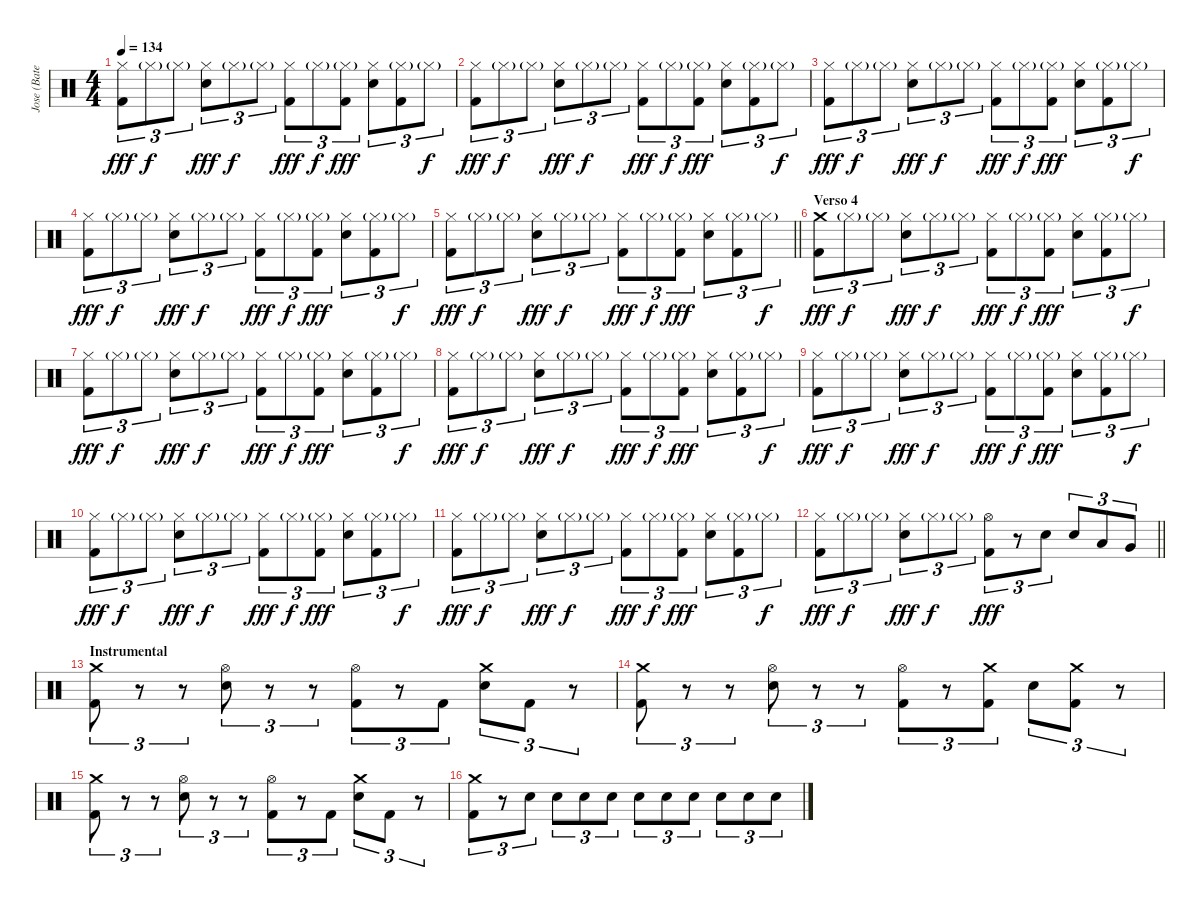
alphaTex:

\track ("Jose (Bateria)" "Jose (Bate") {instrument percussion}
\staff {score}
\articulation defaults
\ts (4 4)
\tempo 134
\clef neutral
\ks c
("Hi-Hat (closed)" "Kick (hit) 2").8{tu (3 2) dy fff} "Hi-Hat (closed)"{g}.8{tu (3 2) dy f} "Hi-Hat (closed)"{g}.8{tu (3 2)} ("Hi-Hat (closed)" "Snare (hit) 2").8{tu (3 2) dy fff} "Hi-Hat (closed)"{g}.8{tu (3 2) dy f} "Hi-Hat (closed)"{g}.8{tu (3 2)} ("Hi-Hat (closed)" "Kick (hit) 2").8{tu (3 2) dy fff} "Hi-Hat (closed)"{g}.8{tu (3 2) dy f} ("Hi-Hat (closed)"{g} "Kick (hit) 2").8{tu (3 2) dy fff} ("Hi-Hat (closed)" "Snare (hit) 2").8{tu (3 2)} ("Hi-Hat (closed)"{g} "Kick (hit) 2").8{tu (3 2)} "Hi-Hat (closed)"{g}.8{tu (3 2) dy f} |
("Hi-Hat (closed)" "Kick (hit) 2").8{tu (3 2) dy fff} "Hi-Hat (closed)"{g}.8{tu (3 2) dy f} "Hi-Hat (closed)"{g}.8{tu (3 2)} ("Hi-Hat (closed)" "Snare (hit) 2").8{tu (3 2) dy fff} "Hi-Hat (closed)"{g}.8{tu (3 2) dy f} "Hi-Hat (closed)"{g}.8{tu (3 2)} ("Hi-Hat (closed)" "Kick (hit) 2").8{tu (3 2) dy fff} "Hi-Hat (closed)"{g}.8{tu (3 2) dy f} ("Hi-Hat (closed)"{g} "Kick (hit) 2").8{tu (3 2) dy fff} ("Hi-Hat (closed)" "Snare (hit) 2").8{tu (3 2)} ("Hi-Hat (closed)"{g} "Kick (hit) 2").8{tu (3 2)} "Hi-Hat (closed)"{g}.8{tu (3 2) dy f} |
("Hi-Hat (closed)" "Kick (hit) 2").8{tu (3 2) dy fff} "Hi-Hat (closed)"{g}.8{tu (3 2) dy f} "Hi-Hat (closed)"{g}.8{tu (3 2)} ("Hi-Hat (closed)" "Snare (hit) 2").8{tu (3 2) dy fff} "Hi-Hat (closed)"{g}.8{tu (3 2) dy f} "Hi-Hat (closed)"{g}.8{tu (3 2)} ("Hi-Hat (closed)" "Kick (hit) 2").8{tu (3 2) dy fff} "Hi-Hat (closed)"{g}.8{tu (3 2) dy f} ("Hi-Hat (closed)"{g} "Kick (hit) 2").8{tu (3 2) dy fff} ("Hi-Hat (closed)" "Snare (hit) 2").8{tu (3 2)} ("Hi-Hat (closed)"{g} "Kick (hit) 2").8{tu (3 2)} "Hi-Hat (closed)"{g}.8{tu (3 2) dy f} |
("Hi-Hat (closed)" "Kick (hit) 2").8{tu (3 2) dy fff} "Hi-Hat (closed)"{g}.8{tu (3 2) dy f} "Hi-Hat (closed)"{g}.8{tu (3 2)} ("Hi-Hat (closed)" "Snare (hit) 2").8{tu (3 2) dy fff} "Hi-Hat (closed)"{g}.8{tu (3 2) dy f} "Hi-Hat (closed)"{g}.8{tu (3 2)} ("Hi-Hat (closed)" "Kick (hit) 2").8{tu (3 2) dy fff} "Hi-Hat (closed)"{g}.8{tu (3 2) dy f} ("Hi-Hat (closed)"{g} "Kick (hit) 2").8{tu (3 2) dy fff} ("Hi-Hat (closed)" "Snare (hit) 2").8{tu (3 2)} ("Hi-Hat (closed)"{g} "Kick (hit) 2").8{tu (3 2)} "Hi-Hat (closed)"{g}.8{tu (3 2) dy f} |
\barLineRight lightlight
("Hi-Hat (closed)" "Kick (hit) 2").8{tu (3 2) dy fff} "Hi-Hat (closed)"{g}.8{tu (3 2) dy f} "Hi-Hat (closed)"{g}.8{tu (3 2)} ("Hi-Hat (closed)" "Snare (hit) 2").8{tu (3 2) dy fff} "Hi-Hat (closed)"{g}.8{tu (3 2) dy f} "Hi-Hat (closed)"{g}.8{tu (3 2)} ("Hi-Hat (closed)" "Kick (hit) 2").8{tu (3 2) dy fff} "Hi-Hat (closed)"{g}.8{tu (3 2) dy f} ("Hi-Hat (closed)"{g} "Kick (hit) 2").8{tu (3 2) dy fff} ("Hi-Hat (closed)" "Snare (hit) 2").8{tu (3 2)} ("Hi-Hat (closed)"{g} "Kick (hit) 2").8{tu (3 2)} "Hi-Hat (closed)"{g}.8{tu (3 2) dy f} |
\section ("" "Verso 4")
("Crash medium (hit)" "Kick (hit) 2").8{tu (3 2) dy fff} "Hi-Hat (closed)"{g}.8{tu (3 2) dy f} "Hi-Hat (closed)"{g}.8{tu (3 2)} ("Hi-Hat (closed)" "Snare (hit) 2").8{tu (3 2) dy fff} "Hi-Hat (closed)"{g}.8{tu (3 2) dy f} "Hi-Hat (closed)"{g}.8{tu (3 2)} ("Hi-Hat (closed)" "Kick (hit) 2").8{tu (3 2) dy fff} "Hi-Hat (closed)"{g}.8{tu (3 2) dy f} ("Hi-Hat (closed)"{g} "Kick (hit) 2").8{tu (3 2) dy fff} ("Hi-Hat (closed)" "Snare (hit) 2").8{tu (3 2)} ("Hi-Hat (closed)"{g} "Kick (hit) 2").8{tu (3 2)} "Hi-Hat (closed)"{g}.8{tu (3 2) dy f} |
("Hi-Hat (closed)" "Kick (hit) 2").8{tu (3 2) dy fff} "Hi-Hat (closed)"{g}.8{tu (3 2) dy f} "Hi-Hat (closed)"{g}.8{tu (3 2)} ("Hi-Hat (closed)" "Snare (hit) 2").8{tu (3 2) dy fff} "Hi-Hat (closed)"{g}.8{tu (3 2) dy f} "Hi-Hat (closed)"{g}.8{tu (3 2)} ("Hi-Hat (closed)" "Kick (hit) 2").8{tu (3 2) dy fff} "Hi-Hat (closed)"{g}.8{tu (3 2) dy f} ("Hi-Hat (closed)"{g} "Kick (hit) 2").8{tu (3 2) dy fff} ("Hi-Hat (closed)" "Snare (hit) 2").8{tu (3 2)} ("Hi-Hat (closed)"{g} "Kick (hit) 2").8{tu (3 2)} "Hi-Hat (closed)"{g}.8{tu (3 2) dy f} |
("Hi-Hat (closed)" "Kick (hit) 2").8{tu (3 2) dy fff} "Hi-Hat (closed)"{g}.8{tu (3 2) dy f} "Hi-Hat (closed)"{g}.8{tu (3 2)} ("Hi-Hat (closed)" "Snare (hit) 2").8{tu (3 2) dy fff} "Hi-Hat (closed)"{g}.8{tu (3 2) dy f} "Hi-Hat (closed)"{g}.8{tu (3 2)} ("Hi-Hat (closed)" "Kick (hit) 2").8{tu (3 2) dy fff} "Hi-Hat (closed)"{g}.8{tu (3 2) dy f} ("Hi-Hat (closed)"{g} "Kick (hit) 2").8{tu (3 2) dy fff} ("Hi-Hat (closed)" "Snare (hit) 2").8{tu (3 2)} ("Hi-Hat (closed)"{g} "Kick (hit) 2").8{tu (3 2)} "Hi-Hat (closed)"{g}.8{tu (3 2) dy f} |
("Hi-Hat (closed)" "Kick (hit) 2").8{tu (3 2) dy fff} "Hi-Hat (closed)"{g}.8{tu (3 2) dy f} "Hi-Hat (closed)"{g}.8{tu (3 2)} ("Hi-Hat (closed)" "Snare (hit) 2").8{tu (3 2) dy fff} "Hi-Hat (closed)"{g}.8{tu (3 2) dy f} "Hi-Hat (closed)"{g}.8{tu (3 2)} ("Hi-Hat (closed)" "Kick (hit) 2").8{tu (3 2) dy fff} "Hi-Hat (closed)"{g}.8{tu (3 2) dy f} ("Hi-Hat (closed)"{g} "Kick (hit) 2").8{tu (3 2) dy fff} ("Hi-Hat (closed)" "Snare (hit) 2").8{tu (3 2)} ("Hi-Hat (closed)"{g} "Kick (hit) 2").8{tu (3 2)} "Hi-Hat (closed)"{g}.8{tu (3 2) dy f} |
("Hi-Hat (closed)" "Kick (hit) 2").8{tu (3 2) dy fff} "Hi-Hat (closed)"{g}.8{tu (3 2) dy f} "Hi-Hat (closed)"{g}.8{tu (3 2)} ("Hi-Hat (closed)" "Snare (hit) 2").8{tu (3 2) dy fff} "Hi-Hat (closed)"{g}.8{tu (3 2) dy f} "Hi-Hat (closed)"{g}.8{tu (3 2)} ("Hi-Hat (closed)" "Kick (hit) 2").8{tu (3 2) dy fff} "Hi-Hat (closed)"{g}.8{tu (3 2) dy f} ("Hi-Hat (closed)"{g} "Kick (hit) 2").8{tu (3 2) dy fff} ("Hi-Hat (closed)" "Snare (hit) 2").8{tu (3 2)} ("Hi-Hat (closed)"{g} "Kick (hit) 2").8{tu (3 2)} "Hi-Hat (closed)"{g}.8{tu (3 2) dy f} |
("Hi-Hat (closed)" "Kick (hit) 2").8{tu (3 2) dy fff} "Hi-Hat (closed)"{g}.8{tu (3 2) dy f} "Hi-Hat (closed)"{g}.8{tu (3 2)} ("Hi-Hat (closed)" "Snare (hit) 2").8{tu (3 2) dy fff} "Hi-Hat (closed)"{g}.8{tu (3 2) dy f} "Hi-Hat (closed)"{g}.8{tu (3 2)} ("Hi-Hat (closed)" "Kick (hit) 2").8{tu (3 2) dy fff} "Hi-Hat (closed)"{g}.8{tu (3 2) dy f} ("Hi-Hat (closed)"{g} "Kick (hit) 2").8{tu (3 2) dy fff} ("Hi-Hat (closed)" "Snare (hit) 2").8{tu (3 2)} ("Hi-Hat (closed)"{g} "Kick (hit) 2").8{tu (3 2)} "Hi-Hat (closed)"{g}.8{tu (3 2) dy f} |
\barLineRight lightlight
("Hi-Hat (closed)" "Kick (hit) 2").8{tu (3 2) dy fff} "Hi-Hat (closed)"{g}.8{tu (3 2) dy f} "Hi-Hat (closed)"{g}.8{tu (3 2)} ("Hi-Hat (closed)" "Snare (hit) 2").8{tu (3 2) dy fff} "Hi-Hat (closed)"{g}.8{tu (3 2) dy f} "Hi-Hat (closed)"{g}.8{tu (3 2)} ("Hi-Hat (open)" "Kick (hit) 2").8{tu (3 2) dy fff} r.8{tu (3 2)} "Snare (hit) 2".8{tu (3 2)} "Snare (hit) 2".8{tu (3 2)} "Low Tom (hit)".8{tu (3 2)} "Very Low Tom (hit)".8{tu (3 2)} |
\section ("" "Instrumental")
("Crash medium (hit)" "Kick (hit) 2").8{tu (3 2)} r.8{tu (3 2)} r.8{tu (3 2)} ("Hi-Hat (open)" "Snare (hit) 2").8{tu (3 2)} r.8{tu (3 2)} r.8{tu (3 2)} ("Hi-Hat (open)" "Kick (hit) 2").8{tu (3 2)} r.8{tu (3 2)} "Kick (hit) 2".8{tu (3 2)} ("Crash medium (hit)" "Snare (hit) 2").8{tu (3 2)} "Kick (hit) 2".8{tu (3 2)} r.8{tu (3 2)} |
("Crash medium (hit)" "Kick (hit) 2").8{tu (3 2)} r.8{tu (3 2)} r.8{tu (3 2)} ("Hi-Hat (open)" "Snare (hit) 2").8{tu (3 2)} r.8{tu (3 2)} r.8{tu (3 2)} ("Hi-Hat (open)" "Kick (hit) 2").8{tu (3 2)} r.8{tu (3 2)} ("Crash medium (hit)" "Kick (hit) 2").8{tu (3 2)} "Snare (hit) 2".8{tu (3 2)} ("Crash medium (hit)" "Kick (hit) 2").8{tu (3 2)} r.8{tu (3 2)} |
("Crash medium (hit)" "Kick (hit) 2").8{tu (3 2)} r.8{tu (3 2)} r.8{tu (3 2)} ("Hi-Hat (open)" "Snare (hit) 2").8{tu (3 2)} r.8{tu (3 2)} r.8{tu (3 2)} ("Hi-Hat (open)" "Kick (hit) 2").8{tu (3 2)} r.8{tu (3 2)} "Kick (hit) 2".8{tu (3 2)} ("Crash medium (hit)" "Snare (hit) 2").8{tu (3 2)} "Kick (hit) 2".8{tu (3 2)} r.8{tu (3 2)} |
("Crash medium (hit)" "Kick (hit) 2").8{tu (3 2)} r.8{tu (3 2)} "Snare (hit) 2".8{tu (3 2)} "Snare (hit) 2".8{tu (3 2)} "Snare (hit) 2".8{tu (3 2)} "Snare (hit) 2".8{tu (3 2)} "Snare (hit) 2".8{tu (3 2)} "Snare (hit) 2".8{tu (3 2)} "Snare (hit) 2".8{tu (3 2)} "Snare (hit) 2".8{tu (3 2)} "Snare (hit) 2".8{tu (3 2)} "Snare (hit) 2".8{tu (3 2)}
